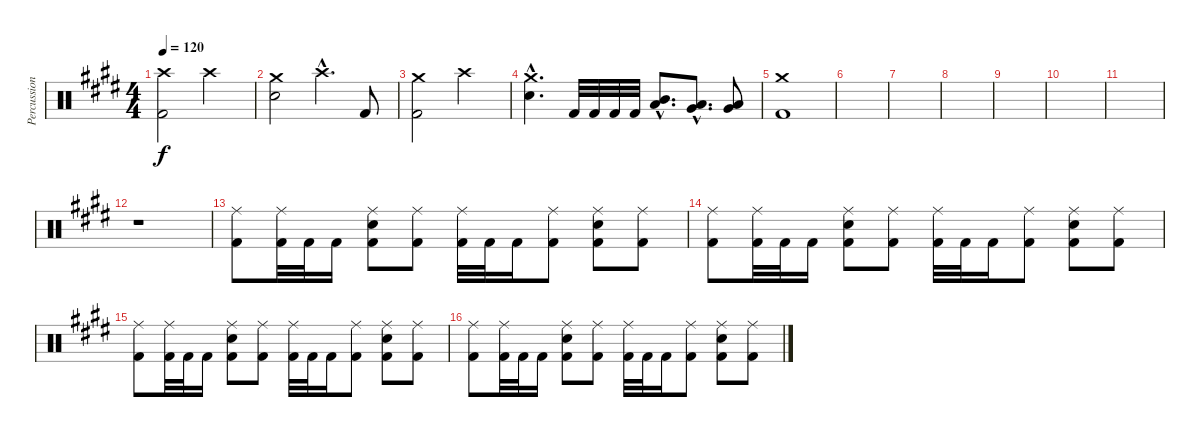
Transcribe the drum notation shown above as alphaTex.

\track ("Percussion" "Percussion") {instrument percussion}
\staff {score}
\articulation defaults
\ts (4 4)
\tempo 120
\clef neutral
\ks c#minor
("Crash high (hit)" "Kick (hit) 2").2{dy f} "Crash high (hit)".2 |
("Crash medium (hit)" "Snare (hit) 2").2 "Crash high (hit)"{hac}.4{d} "Kick (hit) 2".8 |
("Crash medium (hit)" "Kick (hit) 2").2 "Crash high (hit)".2 |
("Crash medium (hit)"{hac} "Snare (hit) 2"{hac}).4{d} "Kick (hit) 2".32 "Kick (hit) 2".32 "Kick (hit) 2".32 "Kick (hit) 2".32 ("Mid Tom (hit)"{hac} "Low Tom (hit)"{hac}).8{d} ("Low Tom (hit)"{hac} "Very Low Tom (hit)"{hac}).8{d} ("Very Low Tom (hit)" "Low Floor Tom (hit)").8 |
("Crash medium (hit)" "Kick (hit) 2").1 |
|
|
|
|
|
|
r.1{volume 0} |
("Ride (middle)" "Kick (hit) 2").8{volume 8} ("Ride (middle)" "Kick (hit) 2").32 "Kick (hit) 2".32 "Kick (hit) 2".16 ("Ride (middle)" "Snare (hit) 2" "Kick (hit) 2").8 ("Ride (middle)" "Kick (hit) 2").8 ("Ride (middle)" "Kick (hit) 2").32 "Kick (hit) 2".32 "Kick (hit) 2".16 ("Ride (middle)" "Kick (hit) 2").8 ("Ride (middle)" "Snare (hit) 2" "Kick (hit) 2").8 ("Ride (middle)" "Kick (hit) 2").8 |
("Ride (middle)" "Kick (hit) 2").8 ("Ride (middle)" "Kick (hit) 2").32 "Kick (hit) 2".32 "Kick (hit) 2".16 ("Ride (middle)" "Snare (hit) 2" "Kick (hit) 2").8 ("Ride (middle)" "Kick (hit) 2").8 ("Ride (middle)" "Kick (hit) 2").32 "Kick (hit) 2".32 "Kick (hit) 2".16 ("Ride (middle)" "Kick (hit) 2").8 ("Ride (middle)" "Snare (hit) 2" "Kick (hit) 2").8 ("Ride (middle)" "Kick (hit) 2").8 |
("Ride (middle)" "Kick (hit) 2").8 ("Ride (middle)" "Kick (hit) 2").32 "Kick (hit) 2".32 "Kick (hit) 2".16 ("Ride (middle)" "Snare (hit) 2" "Kick (hit) 2").8 ("Ride (middle)" "Kick (hit) 2").8 ("Ride (middle)" "Kick (hit) 2").32 "Kick (hit) 2".32 "Kick (hit) 2".16 ("Ride (middle)" "Kick (hit) 2").8 ("Ride (middle)" "Snare (hit) 2" "Kick (hit) 2").8 ("Ride (middle)" "Kick (hit) 2").8 |
("Ride (middle)" "Kick (hit) 2").8 ("Ride (middle)" "Kick (hit) 2").32 "Kick (hit) 2".32 "Kick (hit) 2".16 ("Ride (middle)" "Snare (hit) 2" "Kick (hit) 2").8 ("Ride (middle)" "Kick (hit) 2").8 ("Ride (middle)" "Kick (hit) 2").32 "Kick (hit) 2".32 "Kick (hit) 2".16 ("Ride (middle)" "Kick (hit) 2").8 ("Ride (middle)" "Snare (hit) 2" "Kick (hit) 2").8 ("Ride (middle)" "Kick (hit) 2").8
